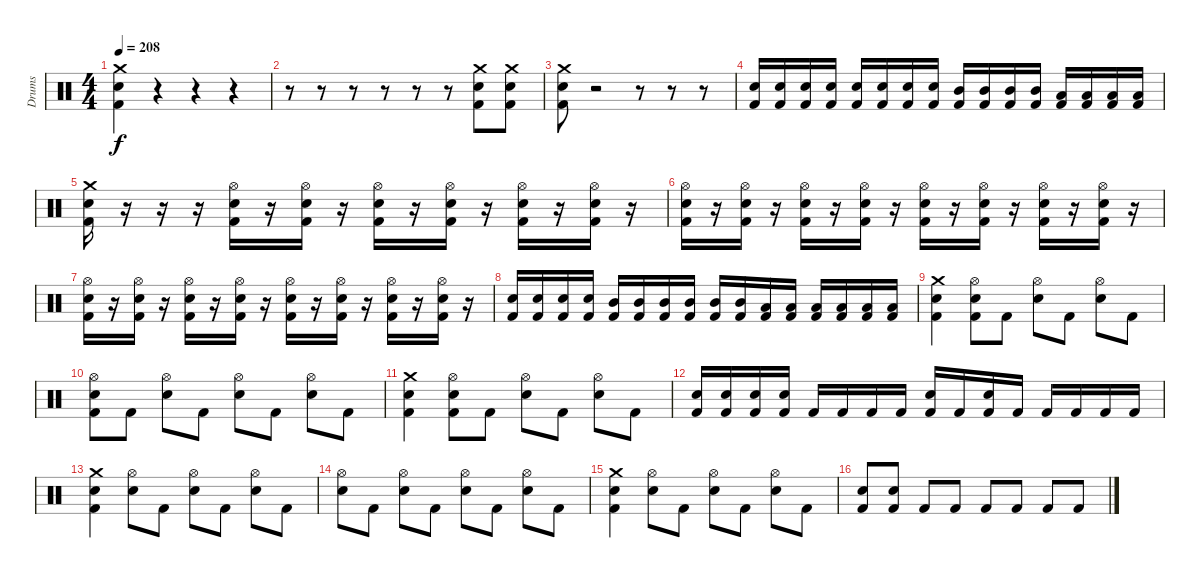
\track ("Drums" "Drums") {instrument percussion}
\staff {score}
\articulation defaults
\ts (4 4)
\tempo 208
\clef neutral
\ks c
("Crash medium (hit)" "Electric Snare (hit)" "Kick (hit) 2").4{dy f} r.4 r.4 r.4 |
r.8 r.8 r.8 r.8 r.8 r.8 ("Crash medium (hit)" "Electric Snare (hit)" "Kick (hit) 2").8 ("Crash medium (hit)" "Electric Snare (hit)" "Kick (hit) 2").8 |
("Crash medium (hit)" "Electric Snare (hit)" "Kick (hit) 2").8 r.2 r.8 r.8 r.8 |
("Electric Snare (hit)" "Kick (hit) 2").16 ("Electric Snare (hit)" "Kick (hit) 2").16 ("Electric Snare (hit)" "Kick (hit) 2").16 ("Electric Snare (hit)" "Kick (hit) 2").16 ("Electric Snare (hit)" "Kick (hit) 2").16 ("Electric Snare (hit)" "Kick (hit) 2").16 ("Electric Snare (hit)" "Kick (hit) 2").16 ("Electric Snare (hit)" "Kick (hit) 2").16 ("Mid Tom (hit)" "Kick (hit) 2").16 ("Mid Tom (hit)" "Kick (hit) 2").16 ("Mid Tom (hit)" "Kick (hit) 2").16 ("Mid Tom (hit)" "Kick (hit) 2").16 ("Low Tom (hit)" "Kick (hit) 2").16 ("Low Tom (hit)" "Kick (hit) 2").16 ("Low Tom (hit)" "Kick (hit) 2").16 ("Low Tom (hit)" "Kick (hit) 2").16 |
("Crash medium (hit)" "Electric Snare (hit)" "Kick (hit) 2").16 r.16 r.16 r.16 ("Hi-Hat (open)" "Electric Snare (hit)" "Kick (hit) 2").16 r.16 ("Hi-Hat (open)" "Electric Snare (hit)" "Kick (hit) 2").16 r.16 ("Hi-Hat (open)" "Electric Snare (hit)" "Kick (hit) 2").16 r.16 ("Hi-Hat (open)" "Electric Snare (hit)" "Kick (hit) 2").16 r.16 ("Hi-Hat (open)" "Electric Snare (hit)" "Kick (hit) 2").16 r.16 ("Hi-Hat (open)" "Electric Snare (hit)" "Kick (hit) 2").16 r.16 |
("Hi-Hat (open)" "Electric Snare (hit)" "Kick (hit) 2").16 r.16 ("Hi-Hat (open)" "Electric Snare (hit)" "Kick (hit) 2").16 r.16 ("Hi-Hat (open)" "Electric Snare (hit)" "Kick (hit) 2").16 r.16 ("Hi-Hat (open)" "Electric Snare (hit)" "Kick (hit) 2").16 r.16 ("Hi-Hat (open)" "Electric Snare (hit)" "Kick (hit) 2").16 r.16 ("Hi-Hat (open)" "Electric Snare (hit)" "Kick (hit) 2").16 r.16 ("Hi-Hat (open)" "Electric Snare (hit)" "Kick (hit) 2").16 r.16 ("Hi-Hat (open)" "Electric Snare (hit)" "Kick (hit) 2").16 r.16 |
("Hi-Hat (open)" "Electric Snare (hit)" "Kick (hit) 2").16 r.16 ("Hi-Hat (open)" "Electric Snare (hit)" "Kick (hit) 2").16 r.16 ("Hi-Hat (open)" "Electric Snare (hit)" "Kick (hit) 2").16 r.16 ("Hi-Hat (open)" "Electric Snare (hit)" "Kick (hit) 2").16 r.16 ("Hi-Hat (open)" "Electric Snare (hit)" "Kick (hit) 2").16 r.16 ("Hi-Hat (open)" "Electric Snare (hit)" "Kick (hit) 2").16 r.16 ("Hi-Hat (open)" "Electric Snare (hit)" "Kick (hit) 2").16 r.16 ("Hi-Hat (open)" "Electric Snare (hit)" "Kick (hit) 2").16 r.16 |
("Electric Snare (hit)" "Kick (hit) 2").16 ("Electric Snare (hit)" "Kick (hit) 2").16 ("Electric Snare (hit)" "Kick (hit) 2").16 ("Electric Snare (hit)" "Kick (hit) 2").16 ("Mid Tom (hit)" "Kick (hit) 2").16 ("Mid Tom (hit)" "Kick (hit) 2").16 ("Mid Tom (hit)" "Kick (hit) 2").16 ("Mid Tom (hit)" "Kick (hit) 2").16 ("Mid Tom (hit)" "Kick (hit) 2").16 ("Mid Tom (hit)" "Kick (hit) 2").16 ("Low Tom (hit)" "Kick (hit) 2").16 ("Low Tom (hit)" "Kick (hit) 2").16 ("Low Tom (hit)" "Kick (hit) 2").16 ("Low Tom (hit)" "Kick (hit) 2").16 ("Low Tom (hit)" "Kick (hit) 2").16 ("Low Tom (hit)" "Kick (hit) 2").16 |
("Crash medium (hit)" "Electric Snare (hit)" "Kick (hit) 2").4 ("Hi-Hat (open)" "Electric Snare (hit)" "Kick (hit) 2").8 "Kick (hit) 2".8 ("Hi-Hat (open)" "Electric Snare (hit)").8 "Kick (hit) 2".8 ("Hi-Hat (open)" "Electric Snare (hit)").8 "Kick (hit) 2".8 |
("Hi-Hat (open)" "Electric Snare (hit)" "Kick (hit) 2").8 "Kick (hit) 2".8 ("Hi-Hat (open)" "Electric Snare (hit)").8 "Kick (hit) 2".8 ("Hi-Hat (open)" "Electric Snare (hit)").8 "Kick (hit) 2".8 ("Hi-Hat (open)" "Electric Snare (hit)").8 "Kick (hit) 2".8 |
("Crash medium (hit)" "Electric Snare (hit)" "Kick (hit) 2").4 ("Hi-Hat (open)" "Electric Snare (hit)" "Kick (hit) 2").8 "Kick (hit) 2".8 ("Hi-Hat (open)" "Electric Snare (hit)").8 "Kick (hit) 2".8 ("Hi-Hat (open)" "Electric Snare (hit)").8 "Kick (hit) 2".8 |
("Electric Snare (hit)" "Kick (hit) 2").16 ("Electric Snare (hit)" "Kick (hit) 2").16 ("Electric Snare (hit)" "Kick (hit) 2").16 ("Electric Snare (hit)" "Kick (hit) 2").16 "Kick (hit) 2".16 "Kick (hit) 2".16 "Kick (hit) 2".16 "Kick (hit) 2".16 ("Electric Snare (hit)" "Kick (hit) 2").16 "Kick (hit) 2".16 ("Electric Snare (hit)" "Kick (hit) 2").16 "Kick (hit) 2".16 "Kick (hit) 2".16 "Kick (hit) 2".16 "Kick (hit) 2".16 "Kick (hit) 2".16 |
("Crash medium (hit)" "Electric Snare (hit)" "Kick (hit) 2").4 ("Hi-Hat (open)" "Electric Snare (hit)").8 "Kick (hit) 2".8 ("Hi-Hat (open)" "Electric Snare (hit)").8 "Kick (hit) 2".8 ("Hi-Hat (open)" "Electric Snare (hit)").8 "Kick (hit) 2".8 |
("Hi-Hat (open)" "Electric Snare (hit)").8 "Kick (hit) 2".8 ("Hi-Hat (open)" "Electric Snare (hit)").8 "Kick (hit) 2".8 ("Hi-Hat (open)" "Electric Snare (hit)").8 "Kick (hit) 2".8 ("Hi-Hat (open)" "Electric Snare (hit)").8 "Kick (hit) 2".8 |
("Crash medium (hit)" "Electric Snare (hit)" "Kick (hit) 2").4 ("Hi-Hat (open)" "Electric Snare (hit)").8 "Kick (hit) 2".8 ("Hi-Hat (open)" "Electric Snare (hit)").8 "Kick (hit) 2".8 ("Hi-Hat (open)" "Electric Snare (hit)").8 "Kick (hit) 2".8 |
("Electric Snare (hit)" "Kick (hit) 2").8 ("Electric Snare (hit)" "Kick (hit) 2").8 "Kick (hit) 2".8 "Kick (hit) 2".8 "Kick (hit) 2".8 "Kick (hit) 2".8 "Kick (hit) 2".8 "Kick (hit) 2".8
